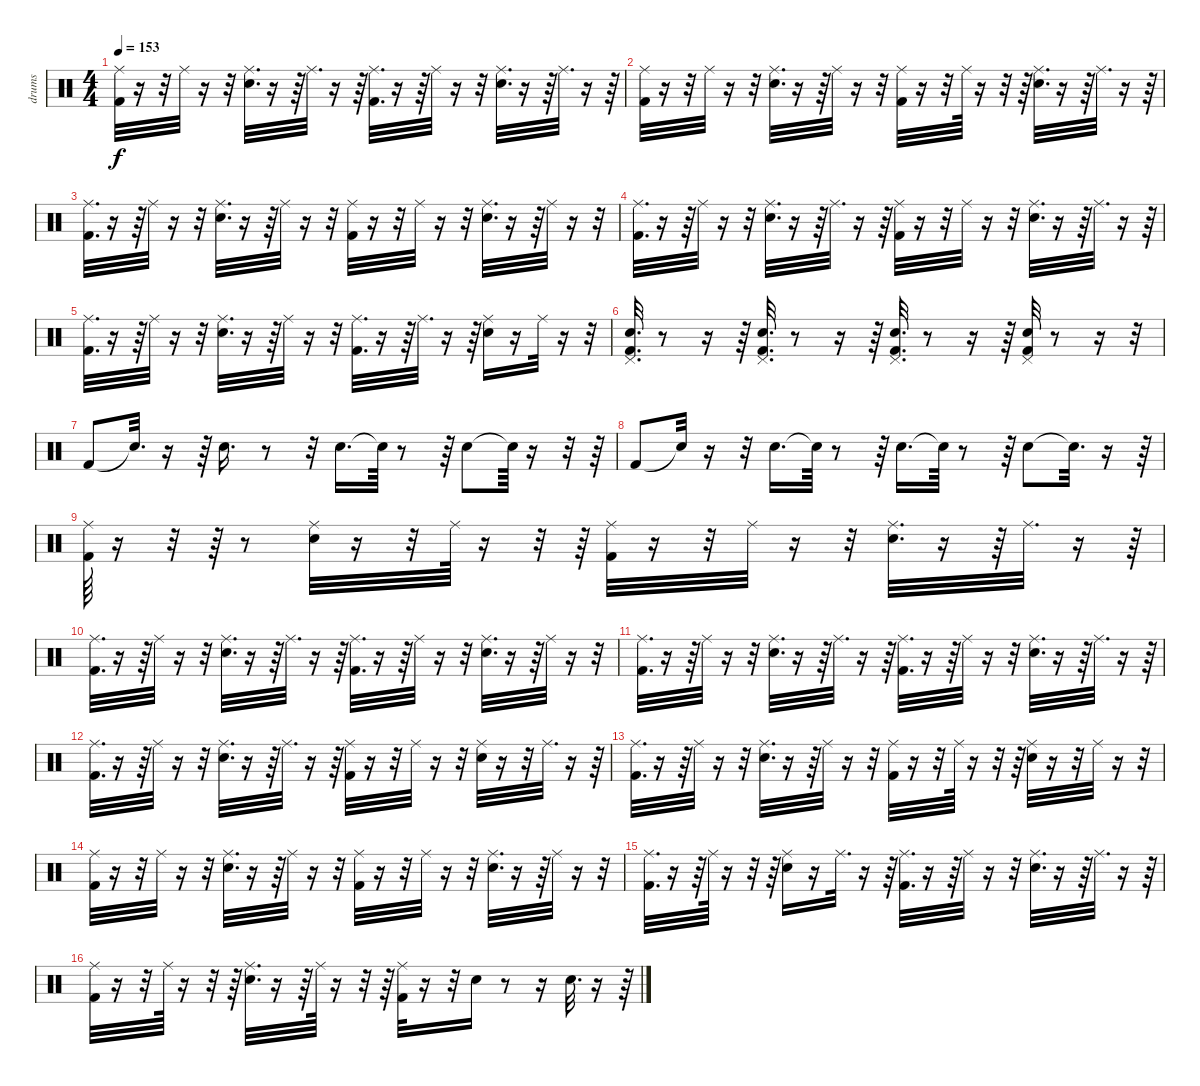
\track ("drums" "drums") {instrument percussion}
\staff {score}
\articulation defaults
\ts (4 4)
\tempo 153
\clef neutral
\ks c
("Ride (middle)" "Kick (hit) 2").32{dy f} r.16 r.32 "Ride (middle)".32 r.16 r.32 ("Ride (middle)" "Snare (hit) 2").32{d} r.16 r.64 "Ride (middle)".32{d} r.16 r.64 ("Ride (middle)" "Kick (hit) 2").32{d} r.16 r.64 "Ride (middle)".32 r.16 r.32 ("Ride (middle)" "Snare (hit) 2").32{d} r.16 r.64 "Ride (middle)".32{d} r.16 r.64 |
("Ride (middle)" "Kick (hit) 2").32 r.16 r.32 "Ride (middle)".32 r.16 r.32 ("Ride (middle)" "Snare (hit) 2").32{d} r.16 r.64 "Ride (middle)".32 r.16 r.32 ("Ride (middle)" "Kick (hit) 2").32 r.16 r.32 "Ride (middle)".64 r.16 r.32 r.64 ("Ride (middle)" "Snare (hit) 2").32{d} r.16 r.64 "Ride (middle)".32{d} r.16 r.64 |
("Ride (middle)" "Kick (hit) 2").32{d} r.16 r.64 "Ride (middle)".32 r.16 r.32 ("Ride (middle)" "Snare (hit) 2").32{d} r.16 r.64 "Ride (middle)".32 r.16 r.32 ("Ride (middle)" "Kick (hit) 2").32 r.16 r.32 "Ride (middle)".32 r.16 r.32 ("Ride (middle)" "Snare (hit) 2").32{d} r.16 r.64 "Ride (middle)".32 r.16 r.32 |
("Ride (middle)" "Kick (hit) 2").32{d} r.16 r.64 "Ride (middle)".32 r.16 r.32 ("Ride (middle)" "Snare (hit) 2").32{d} r.16 r.64 "Ride (middle)".32{d} r.16 r.64 ("Ride (middle)" "Kick (hit) 2").32 r.16 r.32 "Ride (middle)".32 r.16 r.32 ("Ride (middle)" "Snare (hit) 2").32{d} r.16 r.64 "Ride (middle)".32{d} r.16 r.64 |
("Ride (middle)" "Kick (hit) 2").32{d} r.16 r.64 "Ride (middle)".32 r.16 r.32 ("Ride (middle)" "Snare (hit) 2").32{d} r.16 r.64 "Ride (middle)".32 r.16 r.32 ("Ride (middle)" "Kick (hit) 2").32{d} r.16 r.64 "Ride (middle)".32{d} r.16 r.64 ("Ride (middle)" "Snare (hit) 2").16 r.16 "Ride (middle)".32 r.16 r.32 |
("Pedal Hi-Hat (hit)" "Snare (hit) 2" "Kick (hit) 2").32{d} r.8 r.16 r.64 ("Pedal Hi-Hat (hit)" "Snare (hit) 2" "Kick (hit) 2").32{d} r.8 r.16 r.64 ("Pedal Hi-Hat (hit)" "Snare (hit) 2" "Kick (hit) 2").32{d} r.8 r.16 r.64 ("Pedal Hi-Hat (hit)" "Snare (hit) 2" "Kick (hit) 2").32 r.8 r.16 r.32 |
"Kick (hit) 2".8 "Snare (hit)"{t}.32{d} r.16 r.64 "Snare (hit) 2".16{d} r.8 r.32 "Snare (hit) 2".16{d} "Snare (hit)"{t}.64 r.8 r.64 "Snare (hit) 2".8 "Snare (hit)"{t}.64 r.16 r.32 r.64 |
"Kick (hit) 2".8 "Snare (hit)"{t}.32 r.16 r.32 "Snare (hit) 2".16{d} "Snare (hit)"{t}.64 r.8 r.64 "Snare (hit) 2".16{d} "Snare (hit)"{t}.64 r.8 r.64 "Snare (hit) 2".8 "Snare (hit)"{t}.32{d} r.16 r.64 |
("Ride (middle)" "Kick (hit) 2").64 r.16 r.32 r.64 r.8 ("Ride (middle)" "Snare (hit) 2").32 r.16 r.32 "Ride (middle)".64 r.16 r.32 r.64 ("Ride (middle)" "Kick (hit) 2").32 r.16 r.32 "Ride (middle)".32 r.16 r.32 ("Ride (middle)" "Snare (hit) 2").32{d} r.16 r.64 "Ride (middle)".32{d} r.16 r.64 |
("Ride (middle)" "Kick (hit) 2").32{d} r.16 r.64 "Ride (middle)".32 r.16 r.32 ("Ride (middle)" "Snare (hit) 2").32{d} r.16 r.64 "Ride (middle)".32{d} r.16 r.64 ("Ride (middle)" "Kick (hit) 2").32{d} r.16 r.64 "Ride (middle)".32 r.16 r.32 ("Ride (middle)" "Snare (hit) 2").32{d} r.16 r.64 "Ride (middle)".32 r.16 r.32 |
("Ride (middle)" "Kick (hit) 2").32{d} r.16 r.64 "Ride (middle)".32 r.16 r.32 ("Ride (middle)" "Snare (hit) 2").32{d} r.16 r.64 "Ride (middle)".32{d} r.16 r.64 ("Ride (middle)" "Kick (hit) 2").32{d} r.16 r.64 "Ride (middle)".32 r.16 r.32 ("Ride (middle)" "Snare (hit) 2").32{d} r.16 r.64 "Ride (middle)".32{d} r.16 r.64 |
("Ride (middle)" "Kick (hit) 2").32{d} r.16 r.64 "Ride (middle)".32 r.16 r.32 ("Ride (middle)" "Snare (hit) 2").32{d} r.16 r.64 "Ride (middle)".32{d} r.16 r.64 ("Ride (middle)" "Kick (hit) 2").32 r.16 r.32 "Ride (middle)".32 r.16 r.32 ("Ride (middle)" "Snare (hit) 2").32 r.16 r.32 "Ride (middle)".32{d} r.16 r.64 |
("Ride (middle)" "Kick (hit) 2").32{d} r.16 r.64 "Ride (middle)".32 r.16 r.32 ("Ride (middle)" "Snare (hit) 2").32{d} r.16 r.64 "Ride (middle)".32 r.16 r.32 ("Ride (middle)" "Kick (hit) 2").32 r.16 r.32 "Ride (middle)".64 r.16 r.32 r.64 ("Ride (middle)" "Snare (hit) 2").32 r.16 r.32 "Ride (middle)".32 r.16 r.32 |
("Ride (middle)" "Kick (hit) 2").32 r.16 r.32 "Ride (middle)".32 r.16 r.32 ("Ride (middle)" "Snare (hit) 2").32{d} r.16 r.64 "Ride (middle)".32 r.16 r.32 ("Ride (middle)" "Kick (hit) 2").32 r.16 r.32 "Ride (middle)".32 r.16 r.32 ("Ride (middle)" "Snare (hit) 2").32{d} r.16 r.64 "Ride (middle)".32 r.16 r.32 |
("Ride (middle)" "Kick (hit) 2").32{d} r.16 r.64 "Ride (middle)".64 r.16 r.32 r.64 ("Ride (middle)" "Snare (hit) 2").16 r.16 "Ride (middle)".32{d} r.16 r.64 ("Ride (middle)" "Kick (hit) 2").32{d} r.16 r.64 "Ride (middle)".32 r.16 r.32 ("Ride (middle)" "Snare (hit) 2").32{d} r.16 r.64 "Ride (middle)".32{d} r.16 r.64 |
("Ride (middle)" "Kick (hit) 2").32 r.16 r.32 "Ride (middle)".64 r.16 r.32 r.64 ("Ride (middle)" "Snare (hit) 2").32{d} r.16 r.64 "Ride (middle)".64 r.16 r.32 r.64 ("Ride (middle)" "Kick (hit) 2").32 r.16 r.32 "Snare (hit) 2".16 r.8 r.16 "Snare (hit) 2".32{d} r.16 r.64
